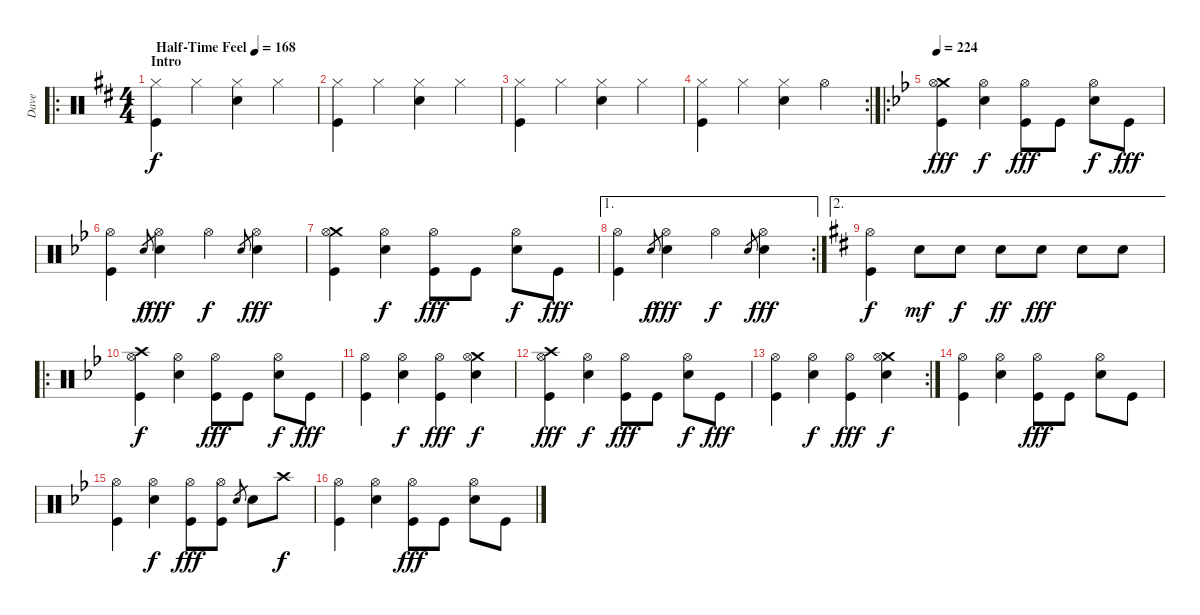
\track ("Dave" "Dave") {instrument percussion}
\staff {score}
\articulation defaults
\ro
\ts (4 4)
\section ("" "Intro")
\tempo (168 "Half-Time Feel")
\clef neutral
\ks d
("Hi-Hat (closed)" "Kick (hit)").4{dy f} "Hi-Hat (closed)".4 ("Hi-Hat (closed)" "Snare (hit) 2").4 "Hi-Hat (closed)".4 |
("Hi-Hat (closed)" "Kick (hit)").4 "Hi-Hat (closed)".4 ("Hi-Hat (closed)" "Snare (hit) 2").4 "Hi-Hat (closed)".4 |
("Hi-Hat (closed)" "Kick (hit)").4 "Hi-Hat (closed)".4 ("Hi-Hat (closed)" "Snare (hit) 2").4 "Hi-Hat (closed)".4 |
\rc 2
("Hi-Hat (closed)" "Kick (hit)").4 "Hi-Hat (closed)".4 ("Hi-Hat (closed)" "Snare (hit) 2").4 "Hi-Hat (open)".4 |
\ro
\tempo 224
\ks gminor
("Crash medium (hit)" "Hi-Hat (open)" "Kick (hit)").4{dy fff} ("Hi-Hat (open)" "Snare (hit) 2").4{dy f} ("Hi-Hat (open)" "Kick (hit)").8{dy fff} "Kick (hit)".8 ("Hi-Hat (open)" "Snare (hit) 2").8{dy f} "Kick (hit)".8{dy fff} |
("Hi-Hat (open)" "Kick (hit)").4 "Snare (hit) 2".8{gr dy f} ("Hi-Hat (open)" "Snare (hit) 2").4{dy fff} "Hi-Hat (open)".4{dy f} "Snare (hit) 2".8{gr} ("Hi-Hat (open)" "Snare (hit) 2").4{dy fff} |
("Crash medium (hit)" "Hi-Hat (open)" "Kick (hit)").4 ("Hi-Hat (open)" "Snare (hit) 2").4{dy f} ("Hi-Hat (open)" "Kick (hit)").8{dy fff} "Kick (hit)".8 ("Hi-Hat (open)" "Snare (hit) 2").8{dy f} "Kick (hit)".8{dy fff} |
\ae 1
\rc 2
("Hi-Hat (open)" "Kick (hit)").4 "Snare (hit) 2".8{gr dy f} ("Hi-Hat (open)" "Snare (hit) 2").4{dy fff} "Hi-Hat (open)".4{dy f} "Snare (hit) 2".8{gr} ("Hi-Hat (open)" "Snare (hit) 2").4{dy fff} |
\ae 2
\ks d
("Hi-Hat (open)" "Kick (hit)").4{dy f} "Snare (hit) 2".8{dy mf} "Snare (hit) 2".8{dy f} "Snare (hit) 2".8{dy ff} "Snare (hit) 2".8{dy fff} "Snare (hit) 2".8 "Snare (hit) 2".8 |
\ro
\ks gminor
("Crash high (hit)" "Hi-Hat (open)" "Kick (hit)").4{dy f} ("Hi-Hat (open)" "Snare (hit) 2").4 ("Hi-Hat (open)" "Kick (hit)").8{dy fff} "Kick (hit)".8 ("Hi-Hat (open)" "Snare (hit) 2").8{dy f} "Kick (hit)".8{dy fff} |
("Hi-Hat (open)" "Kick (hit)").4 ("Hi-Hat (open)" "Snare (hit) 2").4{dy f} ("Hi-Hat (open)" "Kick (hit)").4{dy fff} ("Crash medium (hit)" "Hi-Hat (open)" "Snare (hit) 2").4{dy f} |
("Crash high (hit)" "Hi-Hat (open)" "Kick (hit)").4{dy fff} ("Hi-Hat (open)" "Snare (hit) 2").4{dy f} ("Hi-Hat (open)" "Kick (hit)").8{dy fff} "Kick (hit)".8 ("Hi-Hat (open)" "Snare (hit) 2").8{dy f} "Kick (hit)".8{dy fff} |
\rc 2
("Hi-Hat (open)" "Kick (hit)").4 ("Hi-Hat (open)" "Snare (hit) 2").4{dy f} ("Hi-Hat (open)" "Kick (hit)").4{dy fff} ("Crash medium (hit)" "Hi-Hat (open)" "Snare (hit) 2").4{dy f} |
("Hi-Hat (open)" "Kick (hit)").4 ("Hi-Hat (open)" "Snare (hit) 2").4 ("Hi-Hat (open)" "Kick (hit)").8{dy fff} "Kick (hit)".8 ("Hi-Hat (open)" "Snare (hit) 2").8 "Kick (hit)".8 |
("Hi-Hat (open)" "Kick (hit)").4 ("Hi-Hat (open)" "Snare (hit) 2").4{dy f} ("Hi-Hat (open)" "Kick (hit)").8{dy fff} ("Hi-Hat (open)" "Kick (hit)").8 "Snare (hit) 2".8{gr} "Snare (hit) 2".8 "Crash high (hit)".8{dy f} |
("Hi-Hat (open)" "Kick (hit)").4 ("Hi-Hat (open)" "Snare (hit) 2").4 ("Hi-Hat (open)" "Kick (hit)").8{dy fff} "Kick (hit)".8 ("Hi-Hat (open)" "Snare (hit) 2").8 "Kick (hit)".8
